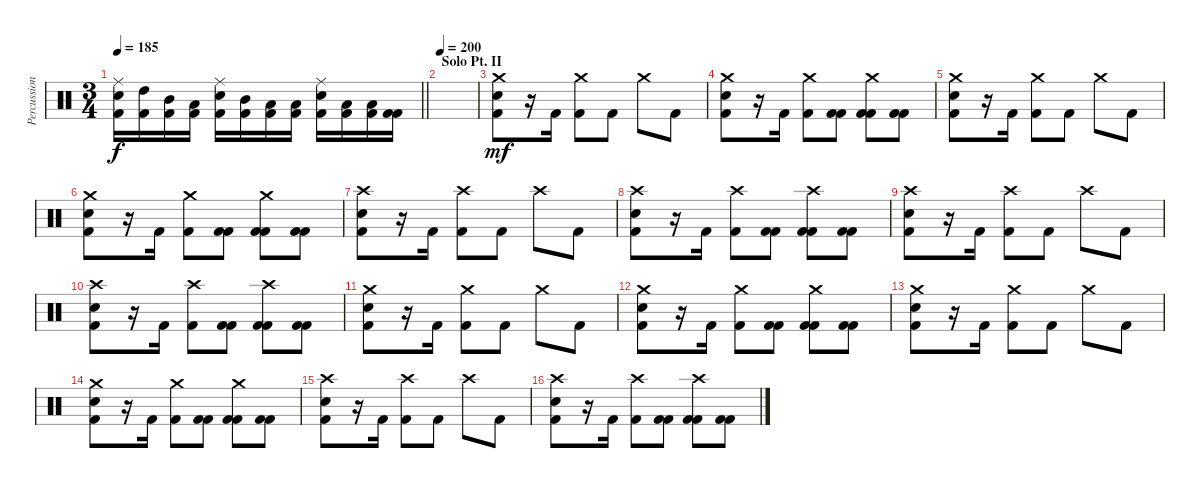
\track ("Percussion" "Percussion") {instrument percussion}
\staff {score}
\articulation defaults
\ts (3 4)
\tempo 185
\clef neutral
\barLineRight lightlight
\ks c
("Ride (middle)" "Electric Snare (hit)" "Kick (hit) 2").16{dy f} ("High Tom (hit)" "Kick (hit) 2").16 ("Mid Tom (hit)" "Kick (hit) 2").16 ("Low Tom (hit)" "Kick (hit) 2").16 ("Ride (middle)" "Electric Snare (hit)" "Kick (hit) 2").16 ("Mid Tom (hit)" "Kick (hit) 2").16 ("Low Tom (hit)" "Kick (hit) 2").16 ("Low Floor Tom (hit)" "Kick (hit) 2").16 ("Ride (middle)" "Electric Snare (hit)" "Kick (hit) 2").16 ("Low Tom (hit)" "Kick (hit) 2").16 ("Low Floor Tom (hit)" "Kick (hit) 2").16 ("Kick (hit) 2" "Kick (hit) 2").16 |
\section ("" "Solo Pt. II")
\tempo 200
|
("Crash medium (hit)" "Electric Snare (hit)" "Kick (hit) 2").8{dy mf} r.16 "Kick (hit) 2".16 ("Crash medium (hit)" "Kick (hit) 2").8 "Kick (hit) 2".8 "Crash medium (hit)".8 "Kick (hit) 2".8 |
("Crash medium (hit)" "Electric Snare (hit)" "Kick (hit) 2").8 r.16 "Kick (hit) 2".16 ("Crash medium (hit)" "Kick (hit) 2").8 ("Kick (hit) 2" "Kick (hit) 2").8 ("Crash medium (hit)" "Kick (hit) 2" "Kick (hit) 2").8 ("Kick (hit) 2" "Kick (hit) 2").8 |
("Crash medium (hit)" "Electric Snare (hit)" "Kick (hit) 2").8 r.16 "Kick (hit) 2".16 ("Crash medium (hit)" "Kick (hit) 2").8 "Kick (hit) 2".8 "Crash medium (hit)".8 "Kick (hit) 2".8 |
("Crash medium (hit)" "Electric Snare (hit)" "Kick (hit) 2").8 r.16 "Kick (hit) 2".16 ("Crash medium (hit)" "Kick (hit) 2").8 ("Kick (hit) 2" "Kick (hit) 2").8 ("Crash medium (hit)" "Kick (hit) 2" "Kick (hit) 2").8 ("Kick (hit) 2" "Kick (hit) 2").8 |
("Crash high (hit)" "Electric Snare (hit)" "Kick (hit) 2").8 r.16 "Kick (hit) 2".16 ("Crash high (hit)" "Kick (hit) 2").8 "Kick (hit) 2".8 "Crash high (hit)".8 "Kick (hit) 2".8 |
("Crash high (hit)" "Electric Snare (hit)" "Kick (hit) 2").8 r.16 "Kick (hit) 2".16 ("Crash high (hit)" "Kick (hit) 2").8 ("Kick (hit) 2" "Kick (hit) 2").8 ("Crash high (hit)" "Kick (hit) 2" "Kick (hit) 2").8 ("Kick (hit) 2" "Kick (hit) 2").8 |
("Crash high (hit)" "Electric Snare (hit)" "Kick (hit) 2").8 r.16 "Kick (hit) 2".16 ("Crash high (hit)" "Kick (hit) 2").8 "Kick (hit) 2".8 "Crash high (hit)".8 "Kick (hit) 2".8 |
("Crash high (hit)" "Electric Snare (hit)" "Kick (hit) 2").8 r.16 "Kick (hit) 2".16 ("Crash high (hit)" "Kick (hit) 2").8 ("Kick (hit) 2" "Kick (hit) 2").8 ("Crash high (hit)" "Kick (hit) 2" "Kick (hit) 2").8 ("Kick (hit) 2" "Kick (hit) 2").8 |
("Crash medium (hit)" "Electric Snare (hit)" "Kick (hit) 2").8 r.16 "Kick (hit) 2".16 ("Crash medium (hit)" "Kick (hit) 2").8 "Kick (hit) 2".8 "Crash medium (hit)".8 "Kick (hit) 2".8 |
("Crash medium (hit)" "Electric Snare (hit)" "Kick (hit) 2").8 r.16 "Kick (hit) 2".16 ("Crash medium (hit)" "Kick (hit) 2").8 ("Kick (hit) 2" "Kick (hit) 2").8 ("Crash medium (hit)" "Kick (hit) 2" "Kick (hit) 2").8 ("Kick (hit) 2" "Kick (hit) 2").8 |
("Crash medium (hit)" "Electric Snare (hit)" "Kick (hit) 2").8 r.16 "Kick (hit) 2".16 ("Crash medium (hit)" "Kick (hit) 2").8 "Kick (hit) 2".8 "Crash medium (hit)".8 "Kick (hit) 2".8 |
("Crash medium (hit)" "Electric Snare (hit)" "Kick (hit) 2").8 r.16 "Kick (hit) 2".16 ("Crash medium (hit)" "Kick (hit) 2").8 ("Kick (hit) 2" "Kick (hit) 2").8 ("Crash medium (hit)" "Kick (hit) 2" "Kick (hit) 2").8 ("Kick (hit) 2" "Kick (hit) 2").8 |
("Crash high (hit)" "Electric Snare (hit)" "Kick (hit) 2").8 r.16 "Kick (hit) 2".16 ("Crash high (hit)" "Kick (hit) 2").8 "Kick (hit) 2".8 "Crash high (hit)".8 "Kick (hit) 2".8 |
("Crash high (hit)" "Electric Snare (hit)" "Kick (hit) 2").8 r.16 "Kick (hit) 2".16 ("Crash high (hit)" "Kick (hit) 2").8 ("Kick (hit) 2" "Kick (hit) 2").8 ("Crash high (hit)" "Kick (hit) 2" "Kick (hit) 2").8 ("Kick (hit) 2" "Kick (hit) 2").8
